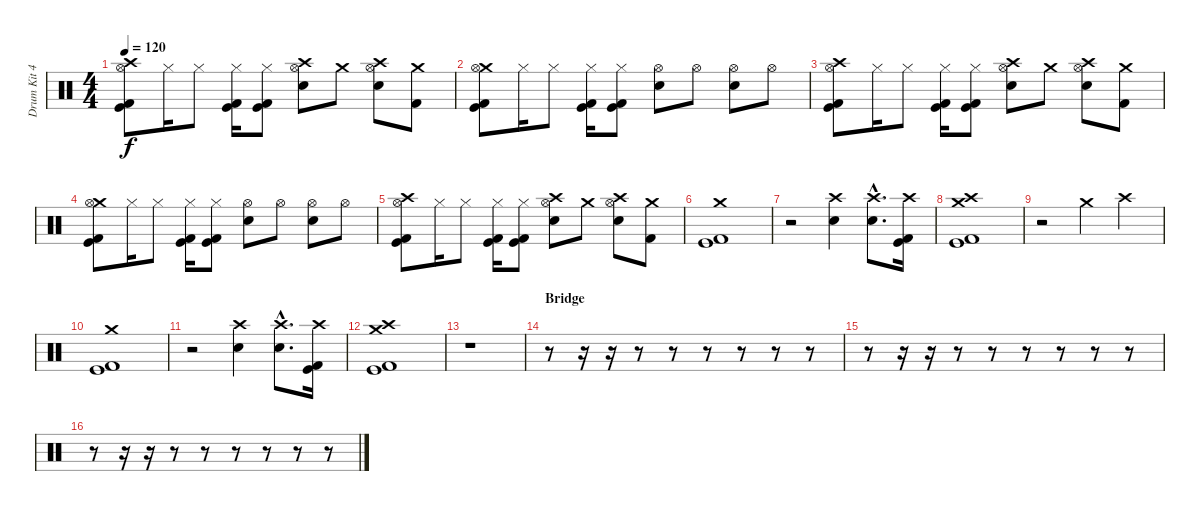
\track ("Drum Kit 42" "Drum Kit 4") {instrument percussion}
\staff {score}
\articulation defaults
\ts (4 4)
\tempo 120
\clef neutral
\ks c
("Crash high (hit)" "Hi-Hat (open)" "Kick (hit)" "Kick (hit) 2").8{dy f} "Hi-Hat (closed)".16 "Hi-Hat (closed)".8 ("Hi-Hat (closed)" "Kick (hit)" "Kick (hit) 2").16 ("Hi-Hat (closed)" "Kick (hit)" "Kick (hit) 2").8 ("Crash high (hit)" "Hi-Hat (open)" "Snare (hit) 2").8 "Crash medium (hit)".8 ("Crash high (hit)" "Hi-Hat (open)" "Snare (hit) 2").8 ("Crash medium (hit)" "Kick (hit) 2").8 |
("Crash medium (hit)" "Hi-Hat (open)" "Kick (hit)" "Kick (hit) 2").8 "Hi-Hat (closed)".16 "Hi-Hat (closed)".8 ("Hi-Hat (closed)" "Kick (hit)" "Kick (hit) 2").16 ("Hi-Hat (closed)" "Kick (hit)" "Kick (hit) 2").8 ("Hi-Hat (open)" "Snare (hit) 2").8 "Hi-Hat (open)".8 ("Hi-Hat (open)" "Snare (hit) 2").8 "Hi-Hat (open)".8 |
("Crash high (hit)" "Hi-Hat (open)" "Kick (hit)" "Kick (hit) 2").8 "Hi-Hat (closed)".16 "Hi-Hat (closed)".8 ("Hi-Hat (closed)" "Kick (hit)" "Kick (hit) 2").16 ("Hi-Hat (closed)" "Kick (hit)" "Kick (hit) 2").8 ("Crash high (hit)" "Hi-Hat (open)" "Snare (hit) 2").8 "Crash medium (hit)".8 ("Crash high (hit)" "Hi-Hat (open)" "Snare (hit) 2").8 ("Crash medium (hit)" "Kick (hit) 2").8 |
("Crash medium (hit)" "Hi-Hat (open)" "Kick (hit)" "Kick (hit) 2").8 "Hi-Hat (closed)".16 "Hi-Hat (closed)".8 ("Hi-Hat (closed)" "Kick (hit)" "Kick (hit) 2").16 ("Hi-Hat (closed)" "Kick (hit)" "Kick (hit) 2").8 ("Hi-Hat (open)" "Snare (hit) 2").8 "Hi-Hat (open)".8 ("Hi-Hat (open)" "Snare (hit) 2").8 "Hi-Hat (open)".8 |
("Crash high (hit)" "Hi-Hat (open)" "Kick (hit)" "Kick (hit) 2").8 "Hi-Hat (closed)".16 "Hi-Hat (closed)".8 ("Hi-Hat (closed)" "Kick (hit)" "Kick (hit) 2").16 ("Hi-Hat (closed)" "Kick (hit)" "Kick (hit) 2").8 ("Crash high (hit)" "Hi-Hat (open)" "Snare (hit) 2").8 "Crash medium (hit)".8 ("Crash high (hit)" "Hi-Hat (open)" "Snare (hit) 2").8 ("Crash medium (hit)" "Kick (hit) 2").8 |
\section ("" "")
("Crash medium (hit)" "Kick (hit)" "Kick (hit) 2").1 |
r.2 ("Crash high (hit)" "Snare (hit) 2").4 ("Crash high (hit)"{hac} "Snare (hit) 2"{hac}).8{d} ("Crash high (hit)" "Kick (hit)" "Kick (hit) 2").16 |
("Crash medium (hit)" "Crash high (hit)" "Kick (hit)" "Kick (hit) 2").1 |
r.2 "Crash medium (hit)".4 "Crash high (hit)".4 |
("Crash medium (hit)" "Kick (hit)" "Kick (hit) 2").1 |
r.2 ("Crash high (hit)" "Snare (hit) 2").4 ("Crash high (hit)"{hac} "Snare (hit) 2"{hac}).8{d} ("Crash high (hit)" "Kick (hit)" "Kick (hit) 2").16 |
("Crash medium (hit)" "Crash high (hit)" "Kick (hit)" "Kick (hit) 2").1 |
r.1 |
\section ("" "Bridge")
r.8 r.16 r.16 r.8 r.8 r.8 r.8 r.8 r.8 |
r.8 r.16 r.16 r.8 r.8 r.8 r.8 r.8 r.8 |
r.8 r.16 r.16 r.8 r.8 r.8 r.8 r.8 r.8
